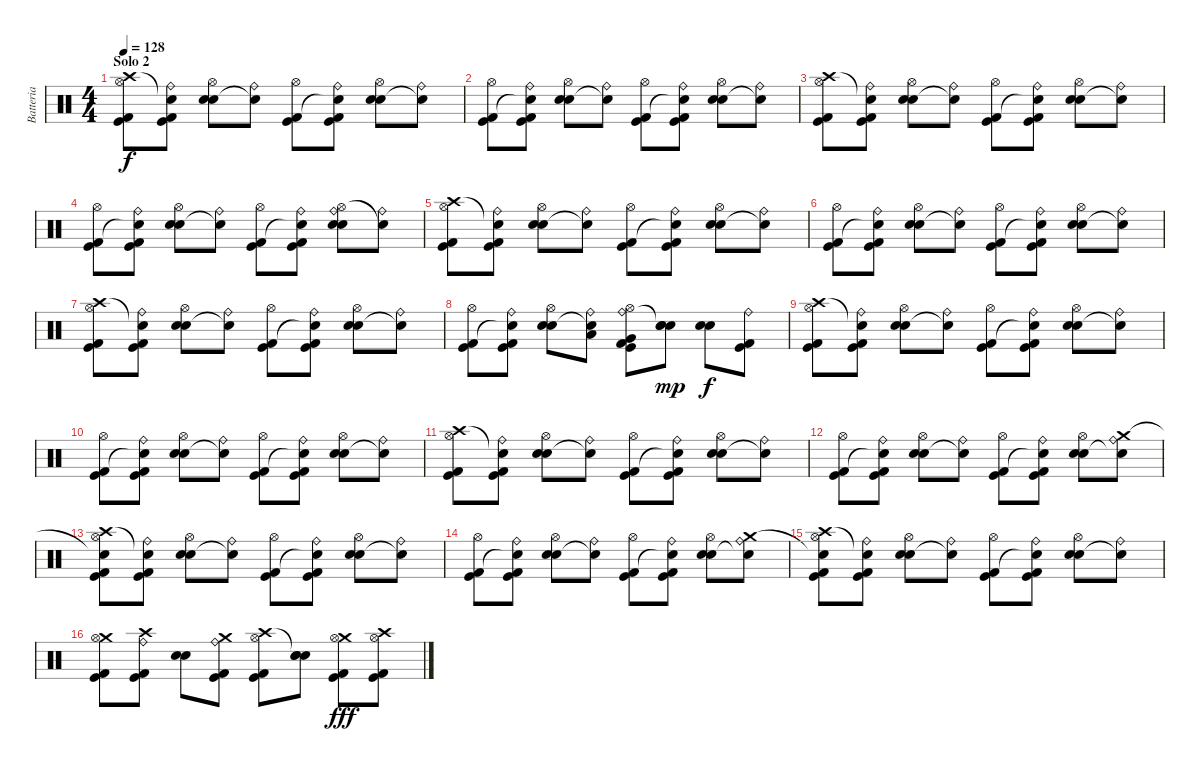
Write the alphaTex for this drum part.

\track ("Batteria" "Batteria") {instrument percussion}
\staff {score}
\articulation defaults
\ts (4 4)
\section ("" "Solo 2")
\tempo 128
\clef neutral
\ks c
("Hi-Hat (open)" "Crash high (hit)" "Kick (hit) 2" "Kick (hit)").8{dy f} ("Ride (bell)" "Snare (hit)"{t} "Kick (hit) 2" "Kick (hit)").8 ("Hi-Hat (open)" "Electric Snare (hit)" "Electric Snare (hit)").8 ("Ride (bell)" "Snare (hit)"{t}).8 ("Hi-Hat (open)" "Kick (hit) 2" "Kick (hit)").8 ("Ride (bell)" "Snare (hit)"{t} "Kick (hit) 2" "Kick (hit)").8 ("Hi-Hat (open)" "Electric Snare (hit)" "Electric Snare (hit)").8 ("Ride (bell)" "Snare (hit)"{t}).8 |
("Hi-Hat (open)" "Kick (hit) 2" "Kick (hit)").8 ("Ride (bell)" "Snare (hit)"{t} "Kick (hit) 2" "Kick (hit)").8 ("Hi-Hat (open)" "Electric Snare (hit)" "Electric Snare (hit)").8 ("Ride (bell)" "Snare (hit)"{t}).8 ("Hi-Hat (open)" "Kick (hit) 2" "Kick (hit)").8 ("Ride (bell)" "Snare (hit)"{t} "Kick (hit) 2" "Kick (hit)").8 ("Hi-Hat (open)" "Electric Snare (hit)" "Electric Snare (hit)").8 ("Ride (bell)" "Snare (hit)"{t}).8 |
("Hi-Hat (open)" "Crash high (hit)" "Kick (hit) 2" "Kick (hit)").8 ("Ride (bell)" "Snare (hit)"{t} "Kick (hit) 2" "Kick (hit)").8 ("Hi-Hat (open)" "Electric Snare (hit)" "Electric Snare (hit)").8 ("Ride (bell)" "Snare (hit)"{t}).8 ("Hi-Hat (open)" "Kick (hit) 2" "Kick (hit)").8 ("Ride (bell)" "Snare (hit)"{t} "Kick (hit) 2" "Kick (hit)").8 ("Hi-Hat (open)" "Electric Snare (hit)" "Electric Snare (hit)").8 ("Ride (bell)" "Snare (hit)"{t}).8 |
("Hi-Hat (open)" "Kick (hit) 2" "Kick (hit)").8 ("Ride (bell)" "Snare (hit)"{t} "Kick (hit) 2" "Kick (hit)").8 ("Hi-Hat (open)" "Electric Snare (hit)" "Electric Snare (hit)").8 ("Ride (bell)" "Snare (hit)"{t}).8 ("Hi-Hat (open)" "Kick (hit) 2" "Kick (hit)").8 ("Ride (bell)" "Snare (hit)"{t} "Kick (hit) 2" "Kick (hit)").8 ("Ride (bell)" "Hi-Hat (open)" "Electric Snare (hit)" "Electric Snare (hit)").8 ("Ride (bell)" "Snare (hit)"{t}).8 |
("Hi-Hat (open)" "Crash high (hit)" "Kick (hit) 2" "Kick (hit)").8 ("Ride (bell)" "Snare (hit)"{t} "Kick (hit) 2" "Kick (hit)").8 ("Hi-Hat (open)" "Electric Snare (hit)" "Electric Snare (hit)").8 ("Ride (bell)" "Snare (hit)"{t}).8 ("Hi-Hat (open)" "Kick (hit) 2" "Kick (hit)").8 ("Ride (bell)" "Snare (hit)"{t} "Kick (hit) 2" "Kick (hit)").8 ("Hi-Hat (open)" "Electric Snare (hit)" "Electric Snare (hit)").8 ("Ride (bell)" "Snare (hit)"{t}).8 |
("Hi-Hat (open)" "Kick (hit) 2" "Kick (hit)").8 ("Ride (bell)" "Snare (hit)"{t} "Kick (hit) 2" "Kick (hit)").8 ("Hi-Hat (open)" "Electric Snare (hit)" "Electric Snare (hit)").8 ("Ride (bell)" "Snare (hit)"{t}).8 ("Hi-Hat (open)" "Kick (hit) 2" "Kick (hit)").8 ("Ride (bell)" "Snare (hit)"{t} "Kick (hit) 2" "Kick (hit)").8 ("Hi-Hat (open)" "Electric Snare (hit)" "Electric Snare (hit)").8 ("Ride (bell)" "Snare (hit)"{t}).8 |
("Hi-Hat (open)" "Crash high (hit)" "Kick (hit) 2" "Kick (hit)").8 ("Ride (bell)" "Snare (hit)"{t} "Kick (hit) 2" "Kick (hit)").8 ("Hi-Hat (open)" "Electric Snare (hit)" "Electric Snare (hit)").8 ("Ride (bell)" "Snare (hit)"{t}).8 ("Hi-Hat (open)" "Kick (hit) 2" "Kick (hit)").8 ("Ride (bell)" "Snare (hit)"{t} "Kick (hit) 2" "Kick (hit)").8 ("Hi-Hat (open)" "Electric Snare (hit)" "Electric Snare (hit)").8 ("Ride (bell)" "Snare (hit)"{t}).8 |
("Hi-Hat (open)" "Kick (hit) 2" "Kick (hit)").8 ("Ride (bell)" "Snare (hit)"{t} "Kick (hit) 2" "Kick (hit)").8 ("Hi-Hat (open)" "Electric Snare (hit)" "Electric Snare (hit)").8 ("Ride (bell)" "Snare (hit)"{t} "Low Tom (hit)").8 ("Ride (bell)" "Hi-Hat (open)" "Very Low Tom (hit)" "Kick (hit) 2" "Kick (hit)").8 ("Snare (hit)"{t} "Electric Snare (hit)" "Electric Snare (hit)").8{dy mp} ("Electric Snare (hit)" "Electric Snare (hit)").8{dy f} ("Ride (bell)" "Kick (hit) 2" "Kick (hit)").8 |
("Hi-Hat (open)" "Crash high (hit)" "Kick (hit) 2" "Kick (hit)").8 ("Ride (bell)" "Snare (hit)"{t} "Kick (hit) 2" "Kick (hit)").8 ("Hi-Hat (open)" "Electric Snare (hit)" "Electric Snare (hit)").8 ("Ride (bell)" "Snare (hit)"{t}).8 ("Hi-Hat (open)" "Kick (hit) 2" "Kick (hit)").8 ("Ride (bell)" "Snare (hit)"{t} "Kick (hit) 2" "Kick (hit)").8 ("Hi-Hat (open)" "Electric Snare (hit)" "Electric Snare (hit)").8 ("Ride (bell)" "Snare (hit)"{t}).8 |
("Hi-Hat (open)" "Kick (hit) 2" "Kick (hit)").8 ("Ride (bell)" "Snare (hit)"{t} "Kick (hit) 2" "Kick (hit)").8 ("Hi-Hat (open)" "Electric Snare (hit)" "Electric Snare (hit)").8 ("Ride (bell)" "Snare (hit)"{t}).8 ("Hi-Hat (open)" "Kick (hit) 2" "Kick (hit)").8 ("Ride (bell)" "Snare (hit)"{t} "Kick (hit) 2" "Kick (hit)").8 ("Hi-Hat (open)" "Electric Snare (hit)" "Electric Snare (hit)").8 ("Ride (bell)" "Snare (hit)"{t}).8 |
("Hi-Hat (open)" "Crash high (hit)" "Kick (hit) 2" "Kick (hit)").8 ("Ride (bell)" "Snare (hit)"{t} "Kick (hit) 2" "Kick (hit)").8 ("Hi-Hat (open)" "Electric Snare (hit)" "Electric Snare (hit)").8 ("Ride (bell)" "Snare (hit)"{t}).8 ("Hi-Hat (open)" "Kick (hit) 2" "Kick (hit)").8 ("Ride (bell)" "Snare (hit)"{t} "Kick (hit) 2" "Kick (hit)").8 ("Hi-Hat (open)" "Electric Snare (hit)" "Electric Snare (hit)").8 ("Ride (bell)" "Snare (hit)"{t}).8 |
("Hi-Hat (open)" "Kick (hit) 2" "Kick (hit)").8 ("Ride (bell)" "Snare (hit)"{t} "Kick (hit) 2" "Kick (hit)").8 ("Hi-Hat (open)" "Electric Snare (hit)" "Electric Snare (hit)").8 ("Ride (bell)" "Snare (hit)"{t}).8 ("Hi-Hat (open)" "Kick (hit) 2" "Kick (hit)").8 ("Ride (bell)" "Snare (hit)"{t} "Kick (hit) 2" "Kick (hit)").8 ("Hi-Hat (open)" "Electric Snare (hit)" "Electric Snare (hit)").8 ("Ride (bell)" "Snare (hit)"{t} "Crash medium (hit)").8 |
("Hi-Hat (open)" "Crash high (hit)" "Snare (hit)"{t} "Kick (hit) 2" "Kick (hit)").8 ("Ride (bell)" "Snare (hit)"{t} "Kick (hit) 2" "Kick (hit)").8 ("Hi-Hat (open)" "Electric Snare (hit)" "Electric Snare (hit)").8 ("Ride (bell)" "Snare (hit)"{t}).8 ("Hi-Hat (open)" "Kick (hit) 2" "Kick (hit)").8 ("Ride (bell)" "Snare (hit)"{t} "Kick (hit) 2" "Kick (hit)").8 ("Hi-Hat (open)" "Electric Snare (hit)" "Electric Snare (hit)").8 ("Ride (bell)" "Snare (hit)"{t}).8 |
("Hi-Hat (open)" "Kick (hit) 2" "Kick (hit)").8 ("Ride (bell)" "Snare (hit)"{t} "Kick (hit) 2" "Kick (hit)").8 ("Hi-Hat (open)" "Electric Snare (hit)" "Electric Snare (hit)").8 ("Ride (bell)" "Snare (hit)"{t}).8 ("Hi-Hat (open)" "Kick (hit) 2" "Kick (hit)").8 ("Ride (bell)" "Snare (hit)"{t} "Kick (hit) 2" "Kick (hit)").8 ("Hi-Hat (open)" "Electric Snare (hit)" "Electric Snare (hit)").8 ("Ride (bell)" "Snare (hit)"{t} "Crash medium (hit)").8 |
("Hi-Hat (open)" "Crash high (hit)" "Snare (hit)"{t} "Kick (hit) 2" "Kick (hit)").8 ("Ride (bell)" "Snare (hit)"{t} "Kick (hit) 2" "Kick (hit)").8 ("Hi-Hat (open)" "Electric Snare (hit)" "Electric Snare (hit)").8 ("Ride (bell)" "Snare (hit)"{t}).8 ("Hi-Hat (open)" "Kick (hit) 2" "Kick (hit)").8 ("Ride (bell)" "Snare (hit)"{t} "Kick (hit) 2" "Kick (hit)").8 ("Hi-Hat (open)" "Electric Snare (hit)" "Electric Snare (hit)").8 ("Ride (bell)" "Snare (hit)"{t}).8 |
("Crash medium (hit)" "Hi-Hat (open)" "Kick (hit) 2" "Kick (hit)").8 ("Ride (bell)" "Crash high (hit)" "Kick (hit) 2" "Kick (hit)").8 ("Electric Snare (hit)" "Electric Snare (hit)").8 ("Ride (bell)" "Crash medium (hit)" "Kick (hit) 2" "Kick (hit)").8 ("Crash high (hit)" "Hi-Hat (open)" "Kick (hit) 2" "Kick (hit)").8 ("Snare (hit)"{t} "Electric Snare (hit)" "Electric Snare (hit)").8 ("Crash medium (hit)" "Hi-Hat (open)" "Kick (hit) 2" "Kick (hit)").8{dy fff} ("Hi-Hat (open)" "Crash high (hit)" "Kick (hit) 2" "Kick (hit)").8
